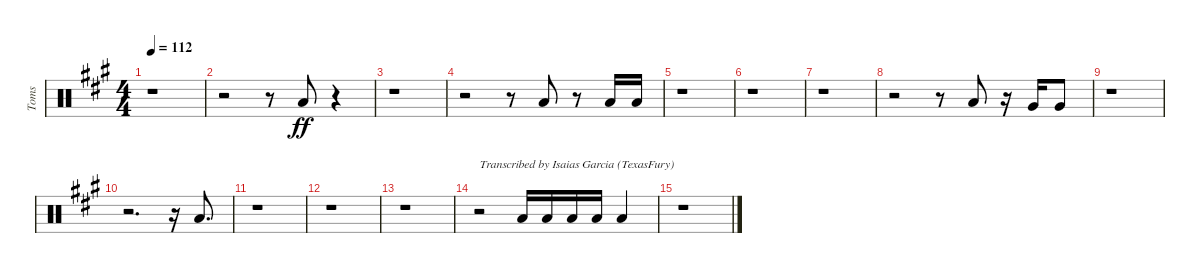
\track ("Toms" "Toms") {instrument percussion}
\staff {score}
\articulation defaults
\ts (4 4)
\tempo 112
\clef neutral
\ks f#minor
r.1{dy ff} |
r.2 r.8 "Low Tom (hit)".8 r.4 |
r.1 |
r.2 r.8 "Low Tom (hit)".8 r.8 "Low Tom (hit)".16 "Low Tom (hit)".16 |
r.1 |
r.1 |
r.1 |
r.2 r.8 "Low Tom (hit)".8{beam Up} r.16 "Very Low Tom (hit)".16 "Very Low Tom (hit)".8 |
r.1 |
r.2{d} r.16 "Low Tom (hit)".8{d beam Up} |
r.1 |
r.1 |
r.1 |
r.2{txt "Transcribed by Isaias Garcia (TexasFury)"} "Low Tom (hit)".16{beam Up} "Low Tom (hit)".16{beam Up} "Low Tom (hit)".16{beam Up} "Low Tom (hit)".16{beam Up} "Low Tom (hit)".4{beam Up} |
r.1
